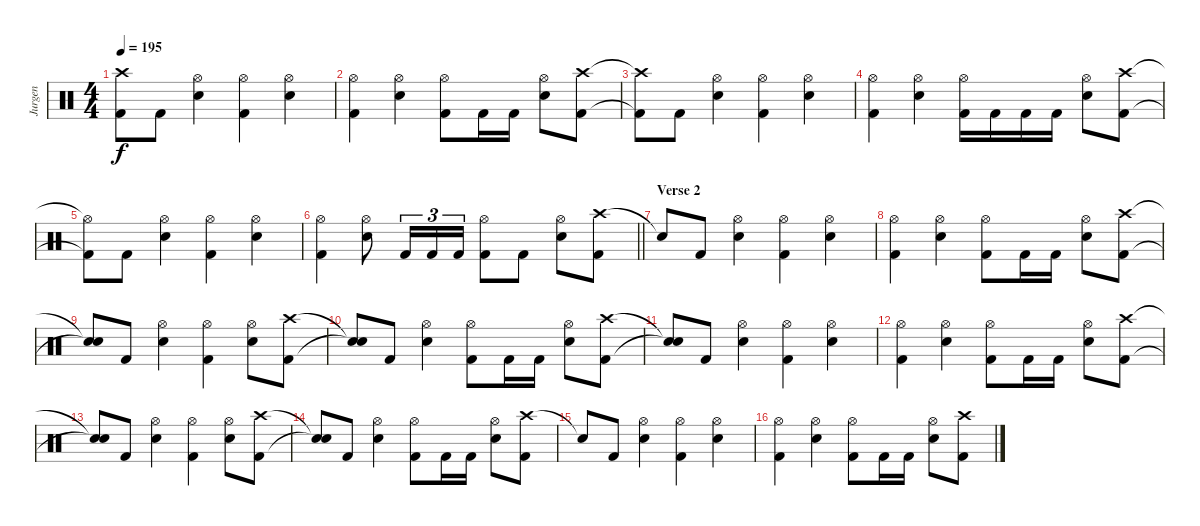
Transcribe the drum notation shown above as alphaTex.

\track ("Jurgen" "Jurgen") {instrument percussion}
\staff {score}
\articulation defaults
\ts (4 4)
\tempo 195
\clef neutral
\ks c
("Crash high (hit)"{t} "Kick (hit) 2"{t}).8{dy f} "Kick (hit) 2".8 ("Hi-Hat (open)" "Snare (hit) 2").4 ("Hi-Hat (open)" "Kick (hit) 2").4 ("Hi-Hat (open)" "Snare (hit) 2").4 |
("Hi-Hat (open)" "Kick (hit) 2").4 ("Hi-Hat (open)" "Snare (hit) 2").4 ("Hi-Hat (open)" "Kick (hit) 2").8 "Kick (hit) 2".16 "Kick (hit) 2".16 ("Hi-Hat (open)" "Snare (hit) 2").8 ("Crash high (hit)" "Kick (hit) 2").8 |
("Crash high (hit)"{t} "Kick (hit) 2"{t}).8 "Kick (hit) 2".8 ("Hi-Hat (open)" "Snare (hit) 2").4 ("Hi-Hat (open)" "Kick (hit) 2").4 ("Hi-Hat (open)" "Snare (hit) 2").4 |
("Hi-Hat (open)" "Kick (hit) 2").4 ("Hi-Hat (open)" "Snare (hit) 2").4 ("Hi-Hat (open)" "Kick (hit) 2").16 "Kick (hit) 2".16 "Kick (hit) 2".16 "Kick (hit) 2".16 ("Hi-Hat (open)" "Snare (hit) 2").8 ("Crash high (hit)" "Kick (hit) 2").8 |
("Hi-Hat (open)"{t} "Kick (hit) 2"{t}).8 "Kick (hit) 2".8 ("Hi-Hat (open)" "Snare (hit) 2").4 ("Hi-Hat (open)" "Kick (hit) 2").4 ("Hi-Hat (open)" "Snare (hit) 2").4 |
\barLineRight lightlight
("Hi-Hat (open)" "Kick (hit) 2").4 ("Hi-Hat (open)" "Snare (hit) 2").8 "Kick (hit) 2".16{tu (3 2)} "Kick (hit) 2".16{tu (3 2)} "Kick (hit) 2".16{tu (3 2)} ("Hi-Hat (open)" "Kick (hit) 2").8 "Kick (hit) 2".8 ("Hi-Hat (open)" "Snare (hit) 2").8 ("Crash high (hit)" "Kick (hit) 2").8 |
\section ("" "Verse 2")
"Snare (hit)"{t}.8 "Kick (hit) 2".8 ("Hi-Hat (open)" "Snare (hit) 2").4 ("Hi-Hat (open)" "Kick (hit) 2").4 ("Hi-Hat (open)" "Snare (hit) 2").4 |
("Hi-Hat (open)" "Kick (hit) 2").4 ("Hi-Hat (open)" "Snare (hit) 2").4 ("Hi-Hat (open)" "Kick (hit) 2").8 "Kick (hit) 2".16 "Kick (hit) 2".16 ("Hi-Hat (open)" "Snare (hit) 2").8 ("Crash high (hit)" "Kick (hit) 2").8 |
("Snare (hit)"{t} "Snare (hit)"{t}).8 "Kick (hit) 2".8 ("Hi-Hat (open)" "Snare (hit) 2").4 ("Hi-Hat (open)" "Kick (hit) 2").4 ("Hi-Hat (open)" "Snare (hit) 2").8 ("Crash high (hit)" "Kick (hit) 2").8 |
("Snare (hit)"{t} "Snare (hit)"{t}).8 "Kick (hit) 2".8 ("Hi-Hat (open)" "Snare (hit) 2").4 ("Hi-Hat (open)" "Kick (hit) 2").8 "Kick (hit) 2".16 "Kick (hit) 2".16 ("Hi-Hat (open)" "Snare (hit) 2").8 ("Crash high (hit)" "Kick (hit) 2").8 |
("Snare (hit)"{t} "Snare (hit)"{t}).8 "Kick (hit) 2".8 ("Hi-Hat (open)" "Snare (hit) 2").4 ("Hi-Hat (open)" "Kick (hit) 2").4 ("Hi-Hat (open)" "Snare (hit) 2").4 |
("Hi-Hat (open)" "Kick (hit) 2").4 ("Hi-Hat (open)" "Snare (hit) 2").4 ("Hi-Hat (open)" "Kick (hit) 2").8 "Kick (hit) 2".16 "Kick (hit) 2".16 ("Hi-Hat (open)" "Snare (hit) 2").8 ("Crash high (hit)" "Kick (hit) 2").8 |
("Snare (hit)"{t} "Snare (hit)"{t}).8 "Kick (hit) 2".8 ("Hi-Hat (open)" "Snare (hit) 2").4 ("Hi-Hat (open)" "Kick (hit) 2").4 ("Hi-Hat (open)" "Snare (hit) 2").8 ("Crash high (hit)" "Kick (hit) 2").8 |
("Snare (hit)"{t} "Snare (hit)"{t}).8 "Kick (hit) 2".8 ("Hi-Hat (open)" "Snare (hit) 2").4 ("Hi-Hat (open)" "Kick (hit) 2").8 "Kick (hit) 2".16 "Kick (hit) 2".16 ("Hi-Hat (open)" "Snare (hit) 2").8 ("Crash high (hit)" "Kick (hit) 2").8 |
"Snare (hit)"{t}.8 "Kick (hit) 2".8 ("Hi-Hat (open)" "Snare (hit) 2").4 ("Hi-Hat (open)" "Kick (hit) 2").4 ("Hi-Hat (open)" "Snare (hit) 2").4 |
("Hi-Hat (open)" "Kick (hit) 2").4 ("Hi-Hat (open)" "Snare (hit) 2").4 ("Hi-Hat (open)" "Kick (hit) 2").8 "Kick (hit) 2".16 "Kick (hit) 2".16 ("Hi-Hat (open)" "Snare (hit) 2").8 ("Crash high (hit)" "Kick (hit) 2").8
